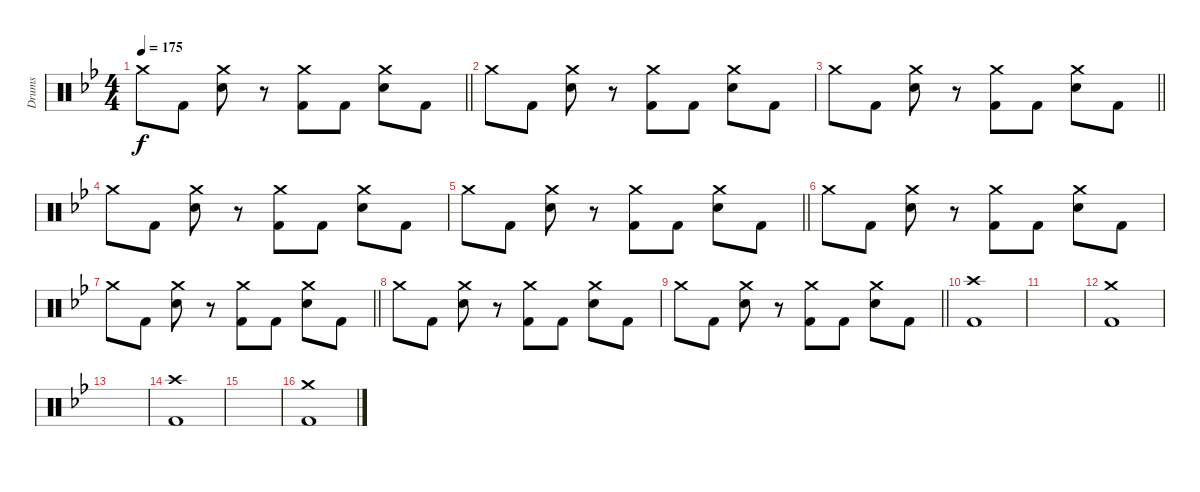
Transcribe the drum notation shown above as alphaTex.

\track ("Drums" "Drums") {instrument percussion}
\staff {score}
\articulation defaults
\ts (4 4)
\tempo 175
\clef neutral
\barLineRight lightlight
\ks bb "Crash medium (hit)".8{dy f} "Kick (hit) 2".8
("Crash medium (hit)" "Electric Snare (hit)").8 r.8 ("Crash medium (hit)" "Kick (hit) 2").8 "Kick (hit) 2".8 ("Crash medium (hit)" "Electric Snare (hit)").8 "Kick (hit) 2".8 |
"Crash medium (hit)".8 "Kick (hit) 2".8 ("Crash medium (hit)" "Electric Snare (hit)").8 r.8 ("Crash medium (hit)" "Kick (hit) 2").8 "Kick (hit) 2".8 ("Crash medium (hit)" "Electric Snare (hit)").8 "Kick (hit) 2".8 |
\barLineRight lightlight "Crash medium (hit)".8 "Kick (hit) 2".8
("Crash medium (hit)" "Electric Snare (hit)").8 r.8 ("Crash medium (hit)" "Kick (hit) 2").8 "Kick (hit) 2".8 ("Crash medium (hit)" "Electric Snare (hit)").8 "Kick (hit) 2".8 |
"Crash medium (hit)".8 "Kick (hit) 2".8 ("Crash medium (hit)" "Electric Snare (hit)").8 r.8 ("Crash medium (hit)" "Kick (hit) 2").8 "Kick (hit) 2".8 ("Crash medium (hit)" "Electric Snare (hit)").8 "Kick (hit) 2".8 |
\barLineRight lightlight "Crash medium (hit)".8 "Kick (hit) 2".8
("Crash medium (hit)" "Electric Snare (hit)").8 r.8 ("Crash medium (hit)" "Kick (hit) 2").8 "Kick (hit) 2".8 ("Crash medium (hit)" "Electric Snare (hit)").8 "Kick (hit) 2".8 |
"Crash medium (hit)".8 "Kick (hit) 2".8 ("Crash medium (hit)" "Electric Snare (hit)").8 r.8 ("Crash medium (hit)" "Kick (hit) 2").8 "Kick (hit) 2".8 ("Crash medium (hit)" "Electric Snare (hit)").8 "Kick (hit) 2".8 |
\barLineRight lightlight "Crash medium (hit)".8 "Kick (hit) 2".8
("Crash medium (hit)" "Electric Snare (hit)").8 r.8 ("Crash medium (hit)" "Kick (hit) 2").8 "Kick (hit) 2".8 ("Crash medium (hit)" "Electric Snare (hit)").8 "Kick (hit) 2".8 |
"Crash medium (hit)".8 "Kick (hit) 2".8 ("Crash medium (hit)" "Electric Snare (hit)").8 r.8 ("Crash medium (hit)" "Kick (hit) 2").8 "Kick (hit) 2".8 ("Crash medium (hit)" "Electric Snare (hit)").8 "Kick (hit) 2".8 |
\barLineRight lightlight "Crash medium (hit)".8 "Kick (hit) 2".8
("Crash medium (hit)" "Electric Snare (hit)").8 r.8 ("Crash medium (hit)" "Kick (hit) 2").8 "Kick (hit) 2".8 ("Crash medium (hit)" "Electric Snare (hit)").8 "Kick (hit) 2".8 |
("Crash high (hit)" "Kick (hit) 2").1 |
|
("Crash medium (hit)" "Kick (hit) 2").1 |
|
("Crash high (hit)" "Kick (hit) 2").1 |
|
("Crash medium (hit)" "Kick (hit) 2").1
